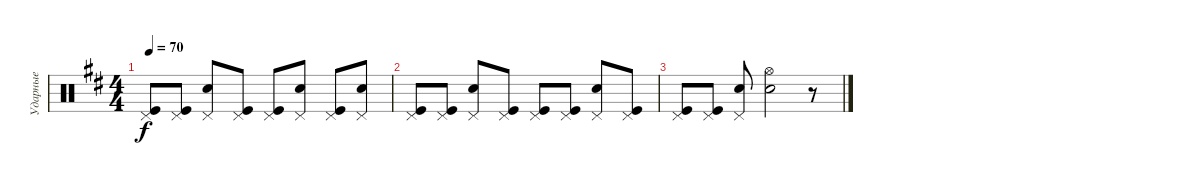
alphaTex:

\track ("Ударные" "Ударные") {instrument percussion}
\staff {score}
\articulation defaults
\ts (4 4)
\tempo 70
\clef neutral
\ks d
("Kick (hit)" "Pedal Hi-Hat (hit)").8{dy f} ("Kick (hit)" "Pedal Hi-Hat (hit)").8 ("Snare (hit) 2" "Pedal Hi-Hat (hit)").8 ("Kick (hit)" "Pedal Hi-Hat (hit)").8 ("Kick (hit)" "Pedal Hi-Hat (hit)").8 ("Snare (hit) 2" "Pedal Hi-Hat (hit)").8 ("Kick (hit)" "Pedal Hi-Hat (hit)").8 ("Snare (hit) 2" "Pedal Hi-Hat (hit)").8 |
("Kick (hit)" "Pedal Hi-Hat (hit)").8 ("Kick (hit)" "Pedal Hi-Hat (hit)").8 ("Snare (hit) 2" "Pedal Hi-Hat (hit)").8 ("Kick (hit)" "Pedal Hi-Hat (hit)").8 ("Kick (hit)" "Pedal Hi-Hat (hit)").8 ("Kick (hit)" "Pedal Hi-Hat (hit)").8 ("Snare (hit) 2" "Pedal Hi-Hat (hit)").8 ("Kick (hit)" "Pedal Hi-Hat (hit)").8 |
("Kick (hit)" "Pedal Hi-Hat (hit)").8 ("Kick (hit)" "Pedal Hi-Hat (hit)").8 ("Snare (hit) 2" "Pedal Hi-Hat (hit)").8 ("Snare (hit) 2" "Hi-Hat (open)").2 r.8
